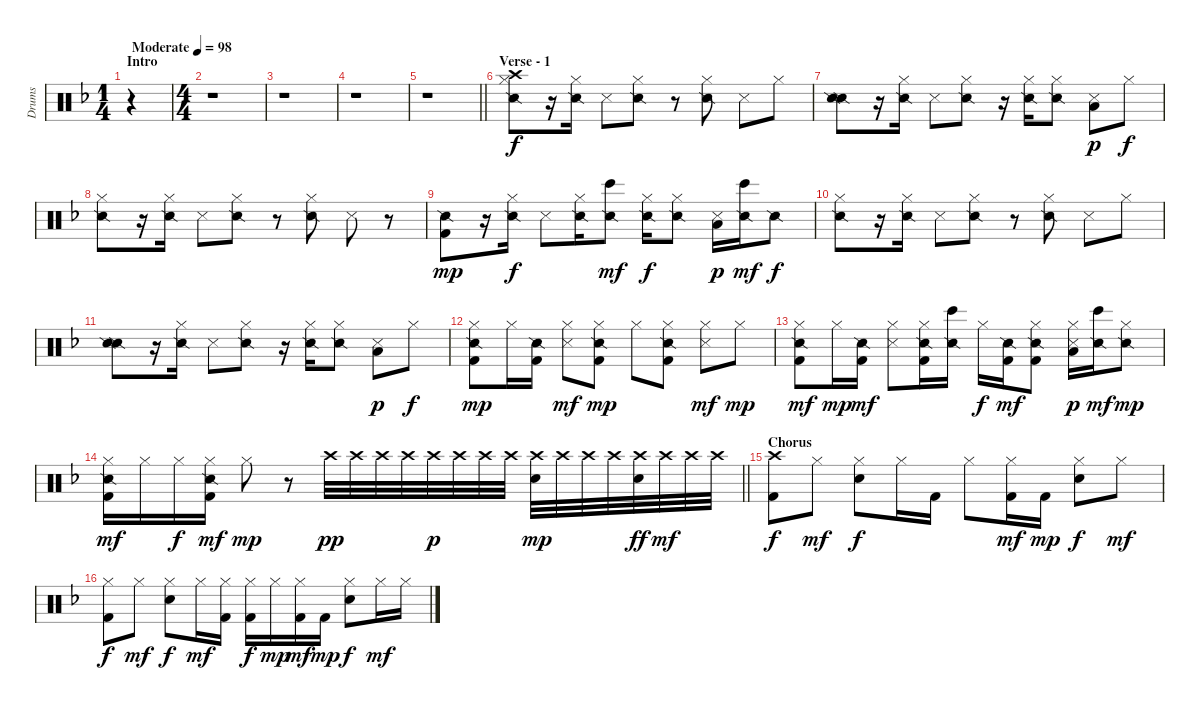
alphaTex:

\track ("Drums" "Drums") {instrument percussion}
\staff {score}
\articulation defaults
\ts (1 4)
\section ("" "Intro")
\tempo (98 "Moderate")
\clef neutral
\ks f
r.4{dy f} |
\ts (4 4)
r.1 |
r.1 |
r.1 |
\barLineRight lightlight
r.1 |
\section ("" "Verse - 1")
("Crash high (hit)" "Snare (side stick) 2" "Hi-Hat (closed)").8{volume 12} r.16 ("Snare (side stick) 2" "Hi-Hat (closed)").16 "Snare (side stick) 3".8 ("Snare (side stick) 2" "Hi-Hat (closed)").8 r.8 ("Snare (side stick) 2" "Hi-Hat (closed)").8 "Snare (side stick) 3".8 "Hi-Hat (closed)".8 |
("Snare (side stick) 2" "Snare (side stick) 2").8 r.16 ("Snare (side stick) 2" "Hi-Hat (closed)").16 "Snare (side stick) 3".8 ("Snare (side stick) 2" "Hi-Hat (closed)").8 r.16 ("Snare (side stick) 2" "Hi-Hat (closed)").16 ("Snare (side stick) 2" "Hi-Hat (closed)").8 ("Low Floor Tom (hit)" "Snare (side stick) 3").8{dy p} "Hi-Hat (closed)".8{dy f} |
("Snare (side stick) 2" "Hi-Hat (closed)").8 r.16 ("Snare (side stick) 2" "Hi-Hat (closed)").16 "Snare (side stick) 3".8 ("Snare (side stick) 2" "Hi-Hat (closed)").8 r.8 ("Snare (side stick) 2" "Hi-Hat (closed)").8 "Snare (side stick) 3".8 r.8 |
("Snare (side stick) 2" "Kick (hit) 2").8{dy mp} r.16 ("Snare (side stick) 2" "Hi-Hat (closed)").16{dy f} "Snare (side stick) 3".8 ("Snare (side stick) 2" "Hi-Hat (closed)").16 ("Snare (side stick) 2" "Bongo High (hit)").8{dy mf} ("Snare (side stick) 2" "Hi-Hat (closed)").16{dy f} ("Snare (side stick) 2" "Hi-Hat (closed)").8 ("Low Floor Tom (hit)" "Snare (side stick) 3").16{dy p} ("Snare (side stick) 2" "Bongo High (hit)").16{dy mf} "Snare (side stick) 2".8{dy f} |
("Snare (side stick) 2" "Hi-Hat (closed)").8 r.16 ("Snare (side stick) 2" "Hi-Hat (closed)").16 "Snare (side stick) 3".8 ("Snare (side stick) 2" "Hi-Hat (closed)").8 r.8 ("Snare (side stick) 2" "Hi-Hat (closed)").8 "Snare (side stick) 3".8 "Hi-Hat (closed)".8 |
("Snare (side stick) 2" "Snare (side stick) 2").8 r.16 ("Snare (side stick) 2" "Hi-Hat (closed)").16 "Snare (side stick) 3".8 ("Snare (side stick) 2" "Hi-Hat (closed)").8 r.16 ("Snare (side stick) 2" "Hi-Hat (closed)").16 ("Snare (side stick) 2" "Hi-Hat (closed)").8 ("Low Floor Tom (hit)" "Snare (side stick) 3").8{dy p} "Hi-Hat (closed)".8{dy f} |
("Hi-Hat (closed)" "Snare (side stick) 2" "Kick (hit) 2").8{dy mp} "Hi-Hat (closed)".16 ("Snare (side stick) 2" "Kick (hit) 2").16 ("Hi-Hat (closed)" "Snare (side stick) 3").8{dy mf} ("Hi-Hat (closed)" "Snare (side stick) 2" "Kick (hit) 2").8{dy mp} "Hi-Hat (closed)".8 ("Hi-Hat (closed)" "Snare (side stick) 2" "Kick (hit) 2").8 ("Hi-Hat (closed)" "Snare (side stick) 3").8{dy mf} "Hi-Hat (closed)".8{dy mp} |
("Hi-Hat (closed)" "Snare (side stick) 2" "Kick (hit) 2").8{dy mf} "Hi-Hat (closed)".16{dy mp} ("Snare (side stick) 2" "Kick (hit) 2").16{dy mf} ("Hi-Hat (closed)" "Snare (side stick) 3").8 ("Hi-Hat (closed)" "Snare (side stick) 2" "Kick (hit) 2").16 ("Snare (side stick) 2" "Bongo High (hit)").16 "Hi-Hat (closed)".16{dy f} ("Snare (side stick) 2" "Kick (hit) 2").16{dy mf} ("Hi-Hat (closed)" "Snare (side stick) 2" "Kick (hit) 2").8 ("Hi-Hat (closed)" "Low Floor Tom (hit)" "Snare (side stick) 3").16{dy p} ("Snare (side stick) 2" "Bongo High (hit)").16{dy mf} ("Hi-Hat (closed)" "Snare (side stick) 2").8{dy mp} |
\barLineRight lightlight
("Hi-Hat (closed)" "Snare (side stick) 2" "Kick (hit) 2").16{dy mf} "Hi-Hat (closed)".16 "Hi-Hat (closed)".16{dy f} ("Hi-Hat (closed)" "Snare (side stick) 2" "Kick (hit) 2").16{dy mf} "Hi-Hat (closed)".8{dy mp} r.8{volume 14} "Crash high (hit)".32{dy pp} "Crash high (hit)".32 "Crash high (hit)".32 "Crash high (hit)".32 "Crash high (hit)".32{dy p} "Crash high (hit)".32 "Crash high (hit)".32 "Crash high (hit)".32 ("Crash high (hit)" "Electric Snare (hit)").32{dy mp} "Crash high (hit)".32 "Crash high (hit)".32 "Crash high (hit)".32 ("Crash high (hit)" "Electric Snare (hit)").32{dy ff} "Crash high (hit)".32{dy mf} "Crash high (hit)".32 "Crash high (hit)".32 |
\section ("" "Chorus")
("Crash high (hit)" "Kick (hit) 2").8{dy f} "Hi-Hat (closed)".8{dy mf} ("Hi-Hat (closed)" "Electric Snare (hit)").8{dy f} "Hi-Hat (closed)".16 "Kick (hit) 2".16 "Hi-Hat (closed)".8 ("Hi-Hat (closed)" "Kick (hit) 2").16{dy mf} "Kick (hit) 2".16{dy mp} ("Hi-Hat (closed)" "Electric Snare (hit)").8{dy f} "Hi-Hat (closed)".8{dy mf} |
("Hi-Hat (closed)" "Kick (hit) 2").8{dy f} "Hi-Hat (closed)".8{dy mf} ("Hi-Hat (closed)" "Electric Snare (hit)").8{dy f} "Hi-Hat (closed)".16{dy mf} ("Hi-Hat (closed)" "Kick (hit) 2").16 ("Hi-Hat (closed)" "Kick (hit) 2").16{dy f} "Hi-Hat (closed)".16{dy mp} ("Hi-Hat (closed)" "Kick (hit) 2").16{dy mf} "Kick (hit) 2".16{dy mp} ("Hi-Hat (closed)" "Electric Snare (hit)").8{dy f} "Hi-Hat (closed)".16{dy mf} "Hi-Hat (closed)".16
